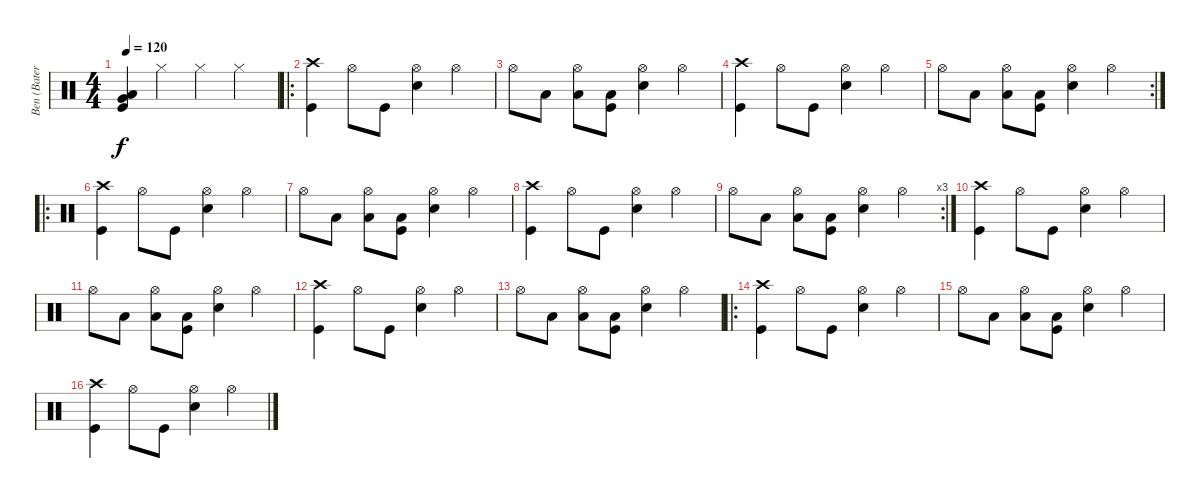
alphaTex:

\track ("Ben (Bateria)" "Ben (Bater") {instrument percussion}
\staff {score}
\articulation defaults
\ts (4 4)
\tempo 120
\clef neutral
\ks c
("Kick (hit)" "Very Low Tom (hit)" "Low Tom (hit)").4{dy f} "Hi-Hat (closed)".4 "Hi-Hat (closed)".4 "Hi-Hat (closed)".4 |
\ro
("Kick (hit)" "Crash high (hit)").4 "Hi-Hat (open)".8 "Kick (hit)".8 ("Snare (hit) 2" "Hi-Hat (open)").4 "Hi-Hat (open)".4 |
"Hi-Hat (open)".8 "Low Floor Tom (hit)".8 ("Low Floor Tom (hit)" "Hi-Hat (open)").8 ("Kick (hit)" "Low Floor Tom (hit)").8 ("Snare (hit) 2" "Hi-Hat (open)").4 "Hi-Hat (open)".4 |
("Kick (hit)" "Crash high (hit)").4 "Hi-Hat (open)".8 "Kick (hit)".8 ("Snare (hit) 2" "Hi-Hat (open)").4 "Hi-Hat (open)".4 |
\rc 2 "Hi-Hat (open)".8 "Low Floor Tom (hit)".8
("Low Floor Tom (hit)" "Hi-Hat (open)").8 ("Kick (hit)" "Low Floor Tom (hit)").8 ("Snare (hit) 2" "Hi-Hat (open)").4 "Hi-Hat (open)".4 |
\ro
("Kick (hit)" "Crash high (hit)").4 "Hi-Hat (open)".8 "Kick (hit)".8 ("Snare (hit) 2" "Hi-Hat (open)").4 "Hi-Hat (open)".4 |
"Hi-Hat (open)".8 "Low Floor Tom (hit)".8 ("Low Floor Tom (hit)" "Hi-Hat (open)").8 ("Kick (hit)" "Low Floor Tom (hit)").8 ("Snare (hit) 2" "Hi-Hat (open)").4 "Hi-Hat (open)".4 |
("Kick (hit)" "Crash high (hit)").4 "Hi-Hat (open)".8 "Kick (hit)".8 ("Snare (hit) 2" "Hi-Hat (open)").4 "Hi-Hat (open)".4 |
\rc 3 "Hi-Hat (open)".8 "Low Floor Tom (hit)".8
("Low Floor Tom (hit)" "Hi-Hat (open)").8 ("Kick (hit)" "Low Floor Tom (hit)").8 ("Snare (hit) 2" "Hi-Hat (open)").4 "Hi-Hat (open)".4 |
("Kick (hit)" "Crash high (hit)").4 "Hi-Hat (open)".8 "Kick (hit)".8 ("Snare (hit) 2" "Hi-Hat (open)").4 "Hi-Hat (open)".4 |
"Hi-Hat (open)".8 "Low Floor Tom (hit)".8 ("Low Floor Tom (hit)" "Hi-Hat (open)").8 ("Kick (hit)" "Low Floor Tom (hit)").8 ("Snare (hit) 2" "Hi-Hat (open)").4 "Hi-Hat (open)".4 |
("Kick (hit)" "Crash high (hit)").4 "Hi-Hat (open)".8 "Kick (hit)".8 ("Snare (hit) 2" "Hi-Hat (open)").4 "Hi-Hat (open)".4 |
"Hi-Hat (open)".8 "Low Floor Tom (hit)".8 ("Low Floor Tom (hit)" "Hi-Hat (open)").8 ("Kick (hit)" "Low Floor Tom (hit)").8 ("Snare (hit) 2" "Hi-Hat (open)").4 "Hi-Hat (open)".4 |
\ro
("Kick (hit)" "Crash high (hit)").4 "Hi-Hat (open)".8 "Kick (hit)".8 ("Snare (hit) 2" "Hi-Hat (open)").4 "Hi-Hat (open)".4 |
"Hi-Hat (open)".8 "Low Floor Tom (hit)".8 ("Low Floor Tom (hit)" "Hi-Hat (open)").8 ("Kick (hit)" "Low Floor Tom (hit)").8 ("Snare (hit) 2" "Hi-Hat (open)").4 "Hi-Hat (open)".4 |
("Kick (hit)" "Crash high (hit)").4 "Hi-Hat (open)".8 "Kick (hit)".8 ("Snare (hit) 2" "Hi-Hat (open)").4 "Hi-Hat (open)".4
